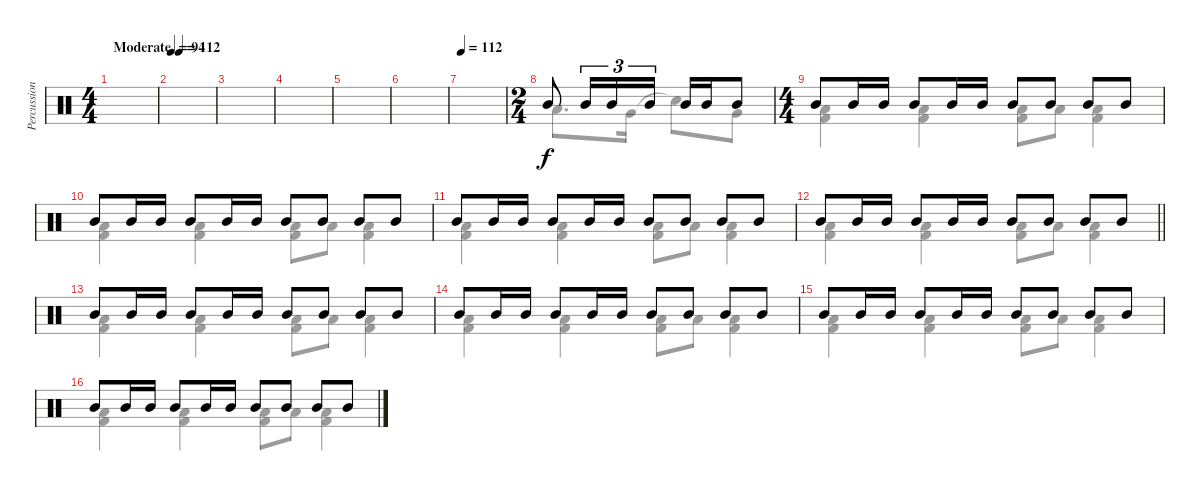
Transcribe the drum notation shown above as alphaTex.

\track ("Percussion" "Percussion") {instrument percussion}
\staff {score}
\articulation defaults
\voice
\ts (4 4)
\tempo (112 "Moderate")
\clef neutral
\ks c
|
\tempo 94
|
|
|
|
|
\tempo 112
|
\ts (2 4)
"Mid Tom (hit)".8 "Mid Tom (hit)".16{tu (3 2)} "Mid Tom (hit)".16{tu (3 2)} "Mid Tom (hit)".16{tu (3 2)} "Mid Tom (hit)".16 "Mid Tom (hit)".16 "Mid Tom (hit)".8 |
\ts (4 4)
"Mid Tom (hit)".8 "Mid Tom (hit)".16 "Mid Tom (hit)".16 "Mid Tom (hit)".8 "Mid Tom (hit)".16 "Mid Tom (hit)".16 "Mid Tom (hit)".8 "Mid Tom (hit)".8 "Mid Tom (hit)".8 "Mid Tom (hit)".8 |
"Mid Tom (hit)".8 "Mid Tom (hit)".16 "Mid Tom (hit)".16 "Mid Tom (hit)".8 "Mid Tom (hit)".16 "Mid Tom (hit)".16 "Mid Tom (hit)".8 "Mid Tom (hit)".8 "Mid Tom (hit)".8 "Mid Tom (hit)".8 |
"Mid Tom (hit)".8 "Mid Tom (hit)".16 "Mid Tom (hit)".16 "Mid Tom (hit)".8 "Mid Tom (hit)".16 "Mid Tom (hit)".16 "Mid Tom (hit)".8 "Mid Tom (hit)".8 "Mid Tom (hit)".8 "Mid Tom (hit)".8 |
\barLineRight lightlight "Mid Tom (hit)".8 "Mid Tom (hit)".16 "Mid Tom (hit)".16 "Mid Tom (hit)".8 "Mid Tom (hit)".16 "Mid Tom (hit)".16 "Mid Tom (hit)".8 "Mid Tom (hit)".8 "Mid Tom (hit)".8 "Mid Tom (hit)".8
|
"Mid Tom (hit)".8 "Mid Tom (hit)".16 "Mid Tom (hit)".16 "Mid Tom (hit)".8 "Mid Tom (hit)".16 "Mid Tom (hit)".16 "Mid Tom (hit)".8 "Mid Tom (hit)".8 "Mid Tom (hit)".8 "Mid Tom (hit)".8 |
"Mid Tom (hit)".8 "Mid Tom (hit)".16 "Mid Tom (hit)".16 "Mid Tom (hit)".8 "Mid Tom (hit)".16 "Mid Tom (hit)".16 "Mid Tom (hit)".8 "Mid Tom (hit)".8 "Mid Tom (hit)".8 "Mid Tom (hit)".8 |
"Mid Tom (hit)".8 "Mid Tom (hit)".16 "Mid Tom (hit)".16 "Mid Tom (hit)".8 "Mid Tom (hit)".16 "Mid Tom (hit)".16 "Mid Tom (hit)".8 "Mid Tom (hit)".8 "Mid Tom (hit)".8 "Mid Tom (hit)".8 |
"Mid Tom (hit)".8 "Mid Tom (hit)".16 "Mid Tom (hit)".16 "Mid Tom (hit)".8 "Mid Tom (hit)".16 "Mid Tom (hit)".16 "Mid Tom (hit)".8 "Mid Tom (hit)".8 "Mid Tom (hit)".8 "Mid Tom (hit)".8
\voice
\clef neutral
\ottava regular
\simile none
\ks c
|
|
|
|
|
|
|
"Low Tom (hit)".8{d} "Very Low Tom (hit)".16 "Snare (hit)"{t}.8 "Very Low Tom (hit)".8 |
("Low Tom (hit)" "Kick (hit) 2").4 ("Low Floor Tom (hit)" "Kick (hit) 2").4 ("Low Floor Tom (hit)" "Kick (hit) 2").8 "Low Floor Tom (hit)".8 ("Low Tom (hit)" "Kick (hit) 2").4 |
("Low Tom (hit)" "Kick (hit) 2").4 ("Low Floor Tom (hit)" "Kick (hit) 2").4 ("Low Floor Tom (hit)" "Kick (hit) 2").8 "Low Floor Tom (hit)".8 ("Low Tom (hit)" "Kick (hit) 2").4 |
("Low Tom (hit)" "Kick (hit) 2").4 ("Low Floor Tom (hit)" "Kick (hit) 2").4 ("Low Floor Tom (hit)" "Kick (hit) 2").8 "Low Floor Tom (hit)".8 ("Low Tom (hit)" "Kick (hit) 2").4 |
\barLineRight lightlight
("Low Tom (hit)" "Kick (hit) 2").4 ("Low Floor Tom (hit)" "Kick (hit) 2").4 ("Low Floor Tom (hit)" "Kick (hit) 2").8 "Low Floor Tom (hit)".8 ("Low Tom (hit)" "Kick (hit) 2").4 |
("Low Tom (hit)" "Kick (hit) 2").4 ("Low Floor Tom (hit)" "Kick (hit) 2").4 ("Low Floor Tom (hit)" "Kick (hit) 2").8 "Low Floor Tom (hit)".8 ("Low Tom (hit)" "Kick (hit) 2").4 |
("Low Tom (hit)" "Kick (hit) 2").4 ("Low Floor Tom (hit)" "Kick (hit) 2").4 ("Low Floor Tom (hit)" "Kick (hit) 2").8 "Low Floor Tom (hit)".8 ("Low Tom (hit)" "Kick (hit) 2").4 |
("Low Tom (hit)" "Kick (hit) 2").4 ("Low Floor Tom (hit)" "Kick (hit) 2").4 ("Low Floor Tom (hit)" "Kick (hit) 2").8 "Low Floor Tom (hit)".8 ("Low Tom (hit)" "Kick (hit) 2").4 |
("Low Tom (hit)" "Kick (hit) 2").4 ("Low Floor Tom (hit)" "Kick (hit) 2").4 ("Low Floor Tom (hit)" "Kick (hit) 2").8 "Low Floor Tom (hit)".8 ("Low Tom (hit)" "Kick (hit) 2").4
